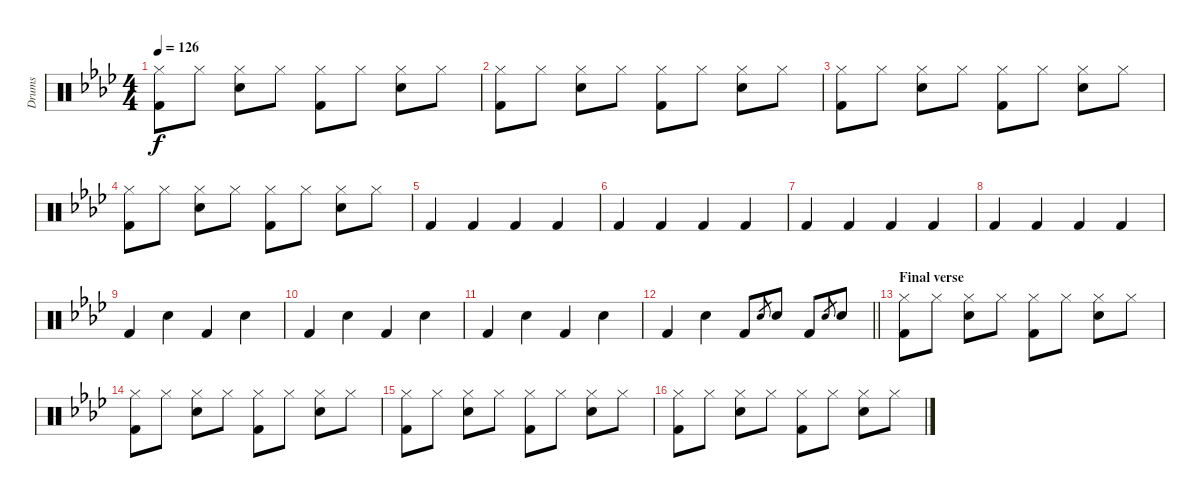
\track ("Drums" "Drums") {instrument percussion}
\staff {score}
\articulation defaults
\ts (4 4)
\tempo 126
\clef neutral
\ks ab
("Hi-Hat (closed)" "Kick (hit) 2").8{dy f} "Hi-Hat (closed)".8 ("Hi-Hat (closed)" "Electric Snare (hit)").8 "Hi-Hat (closed)".8 ("Hi-Hat (closed)" "Kick (hit) 2").8 "Hi-Hat (closed)".8 ("Hi-Hat (closed)" "Electric Snare (hit)").8 "Hi-Hat (closed)".8 |
("Hi-Hat (closed)" "Kick (hit) 2").8 "Hi-Hat (closed)".8 ("Hi-Hat (closed)" "Electric Snare (hit)").8 "Hi-Hat (closed)".8 ("Hi-Hat (closed)" "Kick (hit) 2").8 "Hi-Hat (closed)".8 ("Hi-Hat (closed)" "Electric Snare (hit)").8 "Hi-Hat (closed)".8 |
("Hi-Hat (closed)" "Kick (hit) 2").8 "Hi-Hat (closed)".8 ("Hi-Hat (closed)" "Electric Snare (hit)").8 "Hi-Hat (closed)".8 ("Hi-Hat (closed)" "Kick (hit) 2").8 "Hi-Hat (closed)".8 ("Hi-Hat (closed)" "Electric Snare (hit)").8 "Hi-Hat (closed)".8 |
("Hi-Hat (closed)" "Kick (hit) 2").8 "Hi-Hat (closed)".8 ("Hi-Hat (closed)" "Electric Snare (hit)").8 "Hi-Hat (closed)".8 ("Hi-Hat (closed)" "Kick (hit) 2").8 "Hi-Hat (closed)".8 ("Hi-Hat (closed)" "Electric Snare (hit)").8 "Hi-Hat (closed)".8 |
"Kick (hit) 2".4 "Kick (hit) 2".4 "Kick (hit) 2".4 "Kick (hit) 2".4 |
"Kick (hit) 2".4 "Kick (hit) 2".4 "Kick (hit) 2".4 "Kick (hit) 2".4 |
"Kick (hit) 2".4 "Kick (hit) 2".4 "Kick (hit) 2".4 "Kick (hit) 2".4 |
"Kick (hit) 2".4 "Kick (hit) 2".4 "Kick (hit) 2".4 "Kick (hit) 2".4 |
"Kick (hit) 2".4 "Electric Snare (hit)".4 "Kick (hit) 2".4 "Electric Snare (hit)".4 |
"Kick (hit) 2".4 "Electric Snare (hit)".4 "Kick (hit) 2".4 "Electric Snare (hit)".4 |
"Kick (hit) 2".4 "Electric Snare (hit)".4 "Kick (hit) 2".4 "Electric Snare (hit)".4 |
\barLineRight lightlight "Kick (hit) 2".4 "Electric Snare (hit)".4 "Kick (hit) 2".8 "Electric Snare (hit)".8{gr} "Electric Snare (hit)".8 "Kick (hit) 2".8 "Electric Snare (hit)".8{gr} "Electric Snare (hit)".8
|
\section ("" "Final verse")
("Hi-Hat (closed)" "Kick (hit) 2").8 "Hi-Hat (closed)".8 ("Hi-Hat (closed)" "Electric Snare (hit)").8 "Hi-Hat (closed)".8 ("Hi-Hat (closed)" "Kick (hit) 2").8 "Hi-Hat (closed)".8 ("Hi-Hat (closed)" "Electric Snare (hit)").8 "Hi-Hat (closed)".8 |
("Hi-Hat (closed)" "Kick (hit) 2").8 "Hi-Hat (closed)".8 ("Hi-Hat (closed)" "Electric Snare (hit)").8 "Hi-Hat (closed)".8 ("Hi-Hat (closed)" "Kick (hit) 2").8 "Hi-Hat (closed)".8 ("Hi-Hat (closed)" "Electric Snare (hit)").8 "Hi-Hat (closed)".8 |
("Hi-Hat (closed)" "Kick (hit) 2").8 "Hi-Hat (closed)".8 ("Hi-Hat (closed)" "Electric Snare (hit)").8 "Hi-Hat (closed)".8 ("Hi-Hat (closed)" "Kick (hit) 2").8 "Hi-Hat (closed)".8 ("Hi-Hat (closed)" "Electric Snare (hit)").8 "Hi-Hat (closed)".8 |
("Hi-Hat (closed)" "Kick (hit) 2").8 "Hi-Hat (closed)".8 ("Hi-Hat (closed)" "Electric Snare (hit)").8 "Hi-Hat (closed)".8 ("Hi-Hat (closed)" "Kick (hit) 2").8 "Hi-Hat (closed)".8 ("Hi-Hat (closed)" "Electric Snare (hit)").8 "Hi-Hat (closed)".8
